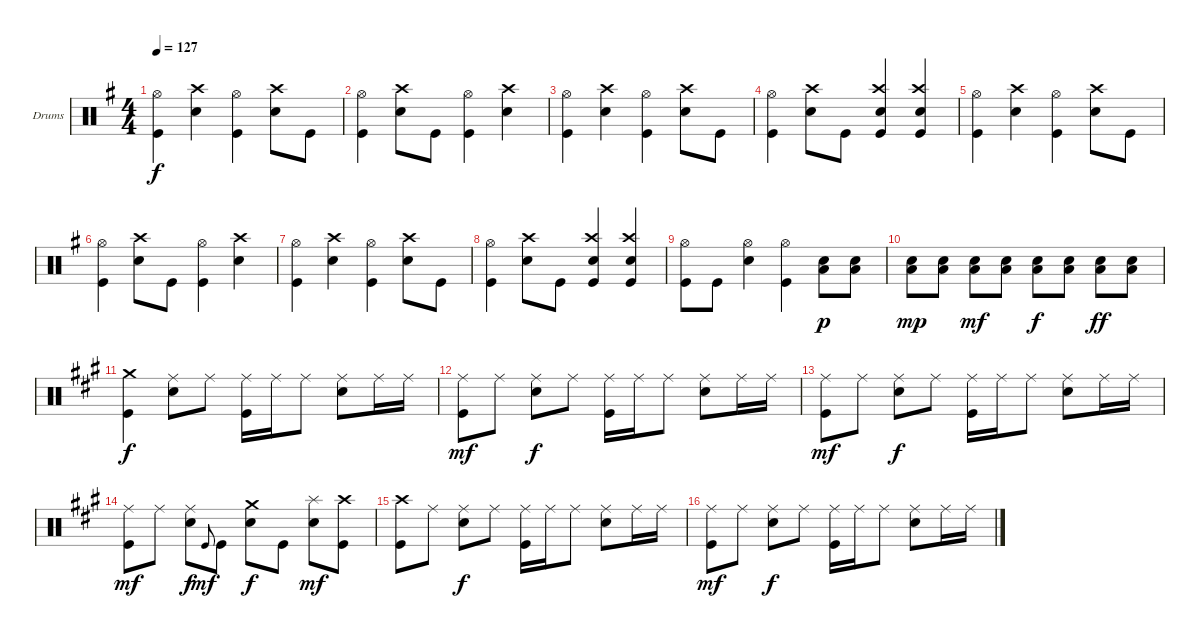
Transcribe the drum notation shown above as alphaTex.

\bracketExtendMode groupsimilarinstruments
\firstSystemTrackNameOrientation horizontal
\otherSystemsTrackNameOrientation horizontal
\track ("Drumkit" "Drums") {instrument percussion}
\staff {score}
\articulation defaults
\ts (4 4)
\tempo 127
\clef neutral
\ks eminor
("Hi-Hat (open)" "Kick (hit)").4{dy f} ("Crash high (hit)" "Snare (hit) 2").4 ("Hi-Hat (open)" "Kick (hit)").4 ("Crash high (hit)" "Snare (hit) 2").8 "Kick (hit)".8 |
("Hi-Hat (open)" "Kick (hit)").4 ("Crash high (hit)" "Snare (hit) 2").8 "Kick (hit)".8 ("Kick (hit)" "Hi-Hat (open)").4 ("Snare (hit) 2" "Crash high (hit)").4 |
("Hi-Hat (open)" "Kick (hit)").4 ("Crash high (hit)" "Snare (hit) 2").4 ("Hi-Hat (open)" "Kick (hit)").4 ("Crash high (hit)" "Snare (hit) 2").8 "Kick (hit)".8 |
("Hi-Hat (open)" "Kick (hit)").4 ("Crash high (hit)" "Snare (hit) 2").8 "Kick (hit)".8 ("Kick (hit)" "Snare (hit) 2" "Crash high (hit)").4 ("Snare (hit) 2" "Crash high (hit)" "Kick (hit)").4 |
("Hi-Hat (open)" "Kick (hit)").4 ("Crash high (hit)" "Snare (hit) 2").4 ("Hi-Hat (open)" "Kick (hit)").4 ("Crash high (hit)" "Snare (hit) 2").8 "Kick (hit)".8 |
("Hi-Hat (open)" "Kick (hit)").4 ("Crash high (hit)" "Snare (hit) 2").8 "Kick (hit)".8 ("Kick (hit)" "Hi-Hat (open)").4 ("Snare (hit) 2" "Crash high (hit)").4 |
("Hi-Hat (open)" "Kick (hit)").4 ("Crash high (hit)" "Snare (hit) 2").4 ("Hi-Hat (open)" "Kick (hit)").4 ("Crash high (hit)" "Snare (hit) 2").8 "Kick (hit)".8 |
("Hi-Hat (open)" "Kick (hit)").4 ("Crash high (hit)" "Snare (hit) 2").8 "Kick (hit)".8 ("Kick (hit)" "Snare (hit) 2" "Crash high (hit)").4 ("Snare (hit) 2" "Crash high (hit)" "Kick (hit)").4 |
("Hi-Hat (open)" "Kick (hit)").8 "Kick (hit)".8 ("Hi-Hat (open)" "Snare (hit) 2").4 ("Hi-Hat (open)" "Kick (hit)").4 ("Low Tom (hit)" "Snare (hit) 2").8{dy p} ("Low Tom (hit)" "Snare (hit) 2").8 |
("Low Tom (hit)" "Snare (hit) 2").8{dy mp} ("Low Tom (hit)" "Snare (hit) 2").8 ("Low Tom (hit)" "Snare (hit) 2").8{dy mf} ("Low Tom (hit)" "Snare (hit) 2").8 ("Low Tom (hit)" "Snare (hit) 2").8{dy f} ("Low Tom (hit)" "Snare (hit) 2").8 ("Low Tom (hit)" "Snare (hit) 2").8{dy ff} ("Low Tom (hit)" "Snare (hit) 2").8 |
\ks f#minor
("Crash medium (hit)" "Kick (hit)").4{dy f} ("Snare (hit) 2" "Ride (middle)").8 "Ride (middle)".8 ("Ride (middle)" "Kick (hit)").16 "Ride (middle)".16 "Ride (middle)".8 ("Ride (middle)" "Snare (hit) 2").8 "Ride (middle)".16 "Ride (middle)".16 |
("Kick (hit)" "Ride (middle)").8{dy mf} "Ride (middle)".8 ("Snare (hit) 2" "Ride (middle)").8{dy f} "Ride (middle)".8 ("Ride (middle)" "Kick (hit)").16 "Ride (middle)".16 "Ride (middle)".8 ("Ride (middle)" "Snare (hit) 2").8 "Ride (middle)".16 "Ride (middle)".16 |
("Kick (hit)" "Ride (middle)").8{dy mf} "Ride (middle)".8 ("Snare (hit) 2" "Ride (middle)").8{dy f} "Ride (middle)".8 ("Ride (middle)" "Kick (hit)").16 "Ride (middle)".16 "Ride (middle)".8 ("Ride (middle)" "Snare (hit) 2").8 "Ride (middle)".16 "Ride (middle)".16 |
("Kick (hit)" "Ride (middle)").8{dy mf} "Ride (middle)".8 ("Snare (hit) 2" "Ride (middle)").8{dy f} "Kick (hit)".8{gr onbeat dy mf} "Kick (hit)".8 ("Snare (hit) 2" "Crash medium (hit)").8{dy f} "Kick (hit)".8 ("Snare (hit) 2" "Splash (hit)").8{dy mf} ("Kick (hit)" "Crash high (hit)").8 |
("Kick (hit)" "Crash high (hit)").8 "Ride (middle)".8 ("Snare (hit) 2" "Ride (middle)").8{dy f} "Ride (middle)".8 ("Ride (middle)" "Kick (hit)").16 "Ride (middle)".16 "Ride (middle)".8 ("Ride (middle)" "Snare (hit) 2").8 "Ride (middle)".16 "Ride (middle)".16 |
("Kick (hit)" "Ride (middle)").8{dy mf} "Ride (middle)".8 ("Snare (hit) 2" "Ride (middle)").8{dy f} "Ride (middle)".8 ("Ride (middle)" "Kick (hit)").16 "Ride (middle)".16 "Ride (middle)".8 ("Ride (middle)" "Snare (hit) 2").8 "Ride (middle)".16 "Ride (middle)".16
